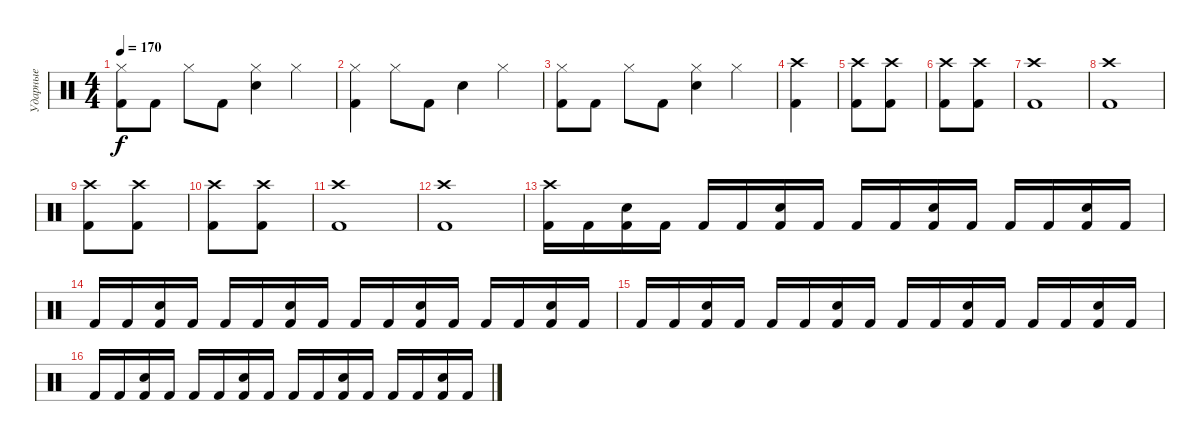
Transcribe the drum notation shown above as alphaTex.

\track ("Ударные" "Ударные") {instrument percussion}
\staff {score}
\articulation defaults
\ts (4 4)
\tempo 170
\clef neutral
\ks c
("Kick (hit) 2" "Hi-Hat (closed)").8{dy f} "Kick (hit) 2".8 "Hi-Hat (closed)".8 "Kick (hit) 2".8 ("Hi-Hat (closed)" "Electric Snare (hit)").4 "Hi-Hat (closed)".4 |
("Kick (hit) 2" "Hi-Hat (closed)").4 "Hi-Hat (closed)".8 "Kick (hit) 2".8 "Electric Snare (hit)".4 "Hi-Hat (closed)".4 |
("Kick (hit) 2" "Hi-Hat (closed)").8 "Kick (hit) 2".8 "Hi-Hat (closed)".8 "Kick (hit) 2".8 ("Hi-Hat (closed)" "Electric Snare (hit)").4 "Hi-Hat (closed)".4 |
("Crash high (hit)" "Kick (hit) 2").4 |
("Kick (hit) 2" "Crash high (hit)").8 ("Kick (hit) 2" "Crash high (hit)").8 |
("Kick (hit) 2" "Crash high (hit)").8 ("Kick (hit) 2" "Crash high (hit)").8 |
("Kick (hit) 2" "Crash high (hit)").1 |
("Kick (hit) 2" "Crash high (hit)").1 |
("Kick (hit) 2" "Crash high (hit)").8 ("Kick (hit) 2" "Crash high (hit)").8 |
("Kick (hit) 2" "Crash high (hit)").8 ("Kick (hit) 2" "Crash high (hit)").8 |
("Kick (hit) 2" "Crash high (hit)").1 |
("Kick (hit) 2" "Crash high (hit)").1 |
("Kick (hit) 2" "Crash high (hit)").16 "Kick (hit) 2".16 ("Kick (hit) 2" "Electric Snare (hit)").16 "Kick (hit) 2".16 "Kick (hit) 2".16 "Kick (hit) 2".16 ("Kick (hit) 2" "Electric Snare (hit)").16 "Kick (hit) 2".16 "Kick (hit) 2".16 "Kick (hit) 2".16 ("Kick (hit) 2" "Electric Snare (hit)").16 "Kick (hit) 2".16 "Kick (hit) 2".16 "Kick (hit) 2".16 ("Kick (hit) 2" "Electric Snare (hit)").16 "Kick (hit) 2".16 |
"Kick (hit) 2".16 "Kick (hit) 2".16 ("Kick (hit) 2" "Electric Snare (hit)").16 "Kick (hit) 2".16 "Kick (hit) 2".16 "Kick (hit) 2".16 ("Kick (hit) 2" "Electric Snare (hit)").16 "Kick (hit) 2".16 "Kick (hit) 2".16 "Kick (hit) 2".16 ("Kick (hit) 2" "Electric Snare (hit)").16 "Kick (hit) 2".16 "Kick (hit) 2".16 "Kick (hit) 2".16 ("Kick (hit) 2" "Electric Snare (hit)").16 "Kick (hit) 2".16 |
"Kick (hit) 2".16 "Kick (hit) 2".16 ("Kick (hit) 2" "Electric Snare (hit)").16 "Kick (hit) 2".16 "Kick (hit) 2".16 "Kick (hit) 2".16 ("Kick (hit) 2" "Electric Snare (hit)").16 "Kick (hit) 2".16 "Kick (hit) 2".16 "Kick (hit) 2".16 ("Kick (hit) 2" "Electric Snare (hit)").16 "Kick (hit) 2".16 "Kick (hit) 2".16 "Kick (hit) 2".16 ("Kick (hit) 2" "Electric Snare (hit)").16 "Kick (hit) 2".16 |
"Kick (hit) 2".16 "Kick (hit) 2".16 ("Kick (hit) 2" "Electric Snare (hit)").16 "Kick (hit) 2".16 "Kick (hit) 2".16 "Kick (hit) 2".16 ("Kick (hit) 2" "Electric Snare (hit)").16 "Kick (hit) 2".16 "Kick (hit) 2".16 "Kick (hit) 2".16 ("Kick (hit) 2" "Electric Snare (hit)").16 "Kick (hit) 2".16 "Kick (hit) 2".16 "Kick (hit) 2".16 ("Kick (hit) 2" "Electric Snare (hit)").16 "Kick (hit) 2".16
